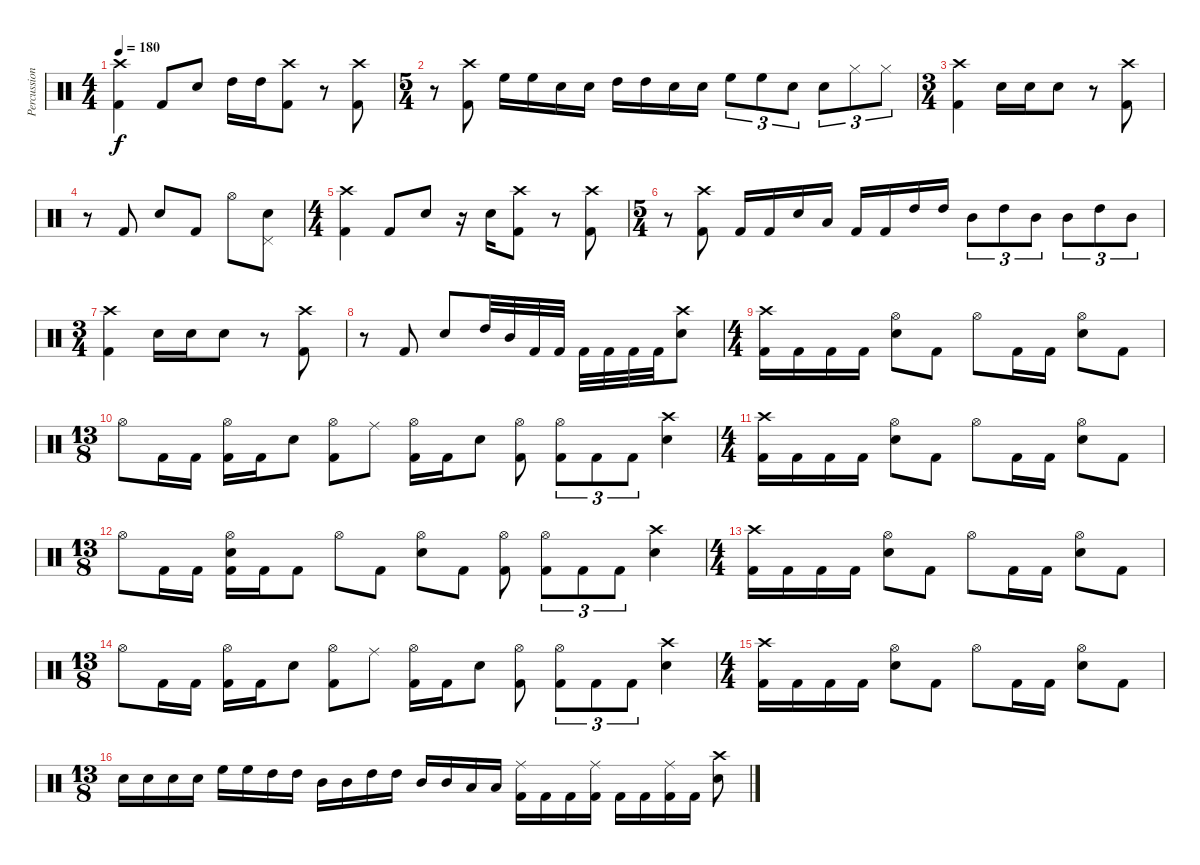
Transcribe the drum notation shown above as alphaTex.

\track ("Percussion" "Percussion") {instrument percussion}
\staff {score}
\articulation defaults
\ts (4 4)
\tempo 180
\clef neutral
\ks c
("Crash high (hit)" "Kick (hit) 2").4{dy f} "Kick (hit) 2".8 "Electric Snare (hit)".8 "High Tom (hit)".16 "High Tom (hit)".16 ("Crash high (hit)" "Kick (hit) 2").8 r.8 ("Crash high (hit)" "Kick (hit) 2").8 |
\ts (5 4)
r.8 ("Crash high (hit)" "Kick (hit) 2").8 "High Floor Tom (hit)".16 "High Floor Tom (hit)".16 "Electric Snare (hit)".16 "Electric Snare (hit)".16 "High Tom (hit)".16 "High Tom (hit)".16 "Electric Snare (hit)".16 "Electric Snare (hit)".16 "High Floor Tom (hit)".8{tu (3 2)} "High Floor Tom (hit)".8{tu (3 2)} "Electric Snare (hit)".8{tu (3 2)} "Electric Snare (hit)".8{tu (3 2)} "Hi-Hat (closed)".8{tu (3 2)} "Hi-Hat (closed)".8{tu (3 2)} |
\ts (3 4)
("Crash high (hit)" "Kick (hit) 2").4 "Electric Snare (hit)".16 "Electric Snare (hit)".16 "Electric Snare (hit)".8 r.8 ("Crash high (hit)" "Kick (hit) 2").8 |
r.8 "Kick (hit) 2".8 "Electric Snare (hit)".8 "Kick (hit) 2".8 "Hi-Hat (open)".8 ("Electric Snare (hit)" "Pedal Hi-Hat (hit)").8 |
\ts (4 4)
("Crash high (hit)" "Kick (hit) 2").4 "Kick (hit) 2".8 "Electric Snare (hit)".8 r.16 "Electric Snare (hit)".16 ("Crash high (hit)" "Kick (hit) 2").8 r.8 ("Crash high (hit)" "Kick (hit) 2").8 |
\ts (5 4)
r.8 ("Crash high (hit)" "Kick (hit) 2").8 "Kick (hit) 2".16 "Kick (hit) 2".16 "Electric Snare (hit)".16 "Low Tom (hit)".16 "Kick (hit) 2".16 "Kick (hit) 2".16 "High Tom (hit)".16 "High Tom (hit)".16 "Mid Tom (hit)".8{tu (3 2)} "High Tom (hit)".8{tu (3 2)} "Mid Tom (hit)".8{tu (3 2)} "Mid Tom (hit)".8{tu (3 2)} "High Tom (hit)".8{tu (3 2)} "Mid Tom (hit)".8{tu (3 2)} |
\ts (3 4)
("Crash high (hit)" "Kick (hit) 2").4 "Electric Snare (hit)".16 "Electric Snare (hit)".16 "Electric Snare (hit)".8 r.8 ("Crash high (hit)" "Kick (hit) 2").8 |
r.8 "Kick (hit) 2".8 "Electric Snare (hit)".8 "High Tom (hit)".32 "Mid Tom (hit)".32 "Kick (hit) 2".32 "Kick (hit) 2".32 "Kick (hit) 2".32 "Kick (hit) 2".32 "Kick (hit) 2".32 "Kick (hit) 2".32 ("Crash high (hit)" "Electric Snare (hit)").8 |
\ts (4 4)
("Crash high (hit)" "Kick (hit) 2").16 "Kick (hit) 2".16 "Kick (hit) 2".16 "Kick (hit) 2".16 ("Hi-Hat (open)" "Electric Snare (hit)").8 "Kick (hit) 2".8 "Hi-Hat (open)".8 "Kick (hit) 2".16 "Kick (hit) 2".16 ("Hi-Hat (open)" "Electric Snare (hit)").8 "Kick (hit) 2".8 |
\ts (13 8)
"Hi-Hat (open)".8 "Kick (hit) 2".16 "Kick (hit) 2".16 ("Hi-Hat (open)" "Kick (hit) 2").16 "Kick (hit) 2".16 "Electric Snare (hit)".8 ("Hi-Hat (open)" "Kick (hit) 2").8 "Ride (middle)".8 ("Hi-Hat (open)" "Kick (hit) 2").16 "Kick (hit) 2".16 "Electric Snare (hit)".8 ("Hi-Hat (open)" "Kick (hit) 2").8 ("Hi-Hat (open)" "Kick (hit) 2").8{tu (3 2)} "Kick (hit) 2".8{tu (3 2)} "Kick (hit) 2".8{tu (3 2)} ("Crash high (hit)" "Electric Snare (hit)").4 |
\ts (4 4)
("Crash high (hit)" "Kick (hit) 2").16 "Kick (hit) 2".16 "Kick (hit) 2".16 "Kick (hit) 2".16 ("Hi-Hat (open)" "Electric Snare (hit)").8 "Kick (hit) 2".8 "Hi-Hat (open)".8 "Kick (hit) 2".16 "Kick (hit) 2".16 ("Hi-Hat (open)" "Electric Snare (hit)").8 "Kick (hit) 2".8 |
\ts (13 8)
"Hi-Hat (open)".8 "Kick (hit) 2".16 "Kick (hit) 2".16 ("Hi-Hat (open)" "Electric Snare (hit)" "Kick (hit) 2").16 "Kick (hit) 2".16 "Kick (hit) 2".8 "Hi-Hat (open)".8 "Kick (hit) 2".8 ("Hi-Hat (open)" "Electric Snare (hit)").8 "Kick (hit) 2".8 ("Hi-Hat (open)" "Kick (hit) 2").8 ("Hi-Hat (open)" "Kick (hit) 2").8{tu (3 2)} "Kick (hit) 2".8{tu (3 2)} "Kick (hit) 2".8{tu (3 2)} ("Crash high (hit)" "Electric Snare (hit)").4 |
\ts (4 4)
("Crash high (hit)" "Kick (hit) 2").16 "Kick (hit) 2".16 "Kick (hit) 2".16 "Kick (hit) 2".16 ("Hi-Hat (open)" "Electric Snare (hit)").8 "Kick (hit) 2".8 "Hi-Hat (open)".8 "Kick (hit) 2".16 "Kick (hit) 2".16 ("Hi-Hat (open)" "Electric Snare (hit)").8 "Kick (hit) 2".8 |
\ts (13 8)
"Hi-Hat (open)".8 "Kick (hit) 2".16 "Kick (hit) 2".16 ("Hi-Hat (open)" "Kick (hit) 2").16 "Kick (hit) 2".16 "Electric Snare (hit)".8 ("Hi-Hat (open)" "Kick (hit) 2").8 "Ride (middle)".8 ("Hi-Hat (open)" "Kick (hit) 2").16 "Kick (hit) 2".16 "Electric Snare (hit)".8 ("Hi-Hat (open)" "Kick (hit) 2").8 ("Hi-Hat (open)" "Kick (hit) 2").8{tu (3 2)} "Kick (hit) 2".8{tu (3 2)} "Kick (hit) 2".8{tu (3 2)} ("Crash high (hit)" "Electric Snare (hit)").4 |
\ts (4 4)
("Crash high (hit)" "Kick (hit) 2").16 "Kick (hit) 2".16 "Kick (hit) 2".16 "Kick (hit) 2".16 ("Hi-Hat (open)" "Electric Snare (hit)").8 "Kick (hit) 2".8 "Hi-Hat (open)".8 "Kick (hit) 2".16 "Kick (hit) 2".16 ("Hi-Hat (open)" "Electric Snare (hit)").8 "Kick (hit) 2".8 |
\ts (13 8)
"Electric Snare (hit)".16 "Electric Snare (hit)".16 "Electric Snare (hit)".16 "Electric Snare (hit)".16 "High Floor Tom (hit)".16 "High Floor Tom (hit)".16 "High Tom (hit)".16 "High Tom (hit)".16 "Mid Tom (hit)".16 "Mid Tom (hit)".16 "High Tom (hit)".16 "High Tom (hit)".16 "Mid Tom (hit)".16 "Mid Tom (hit)".16 "Low Tom (hit)".16 "Low Tom (hit)".16 ("Ride (middle)" "Kick (hit) 2").16 "Kick (hit) 2".16 "Kick (hit) 2".16 ("Ride (middle)" "Kick (hit) 2").16 "Kick (hit) 2".16 "Kick (hit) 2".16 ("Ride (middle)" "Kick (hit) 2").16 "Kick (hit) 2".16 ("Crash high (hit)" "Electric Snare (hit)").8
